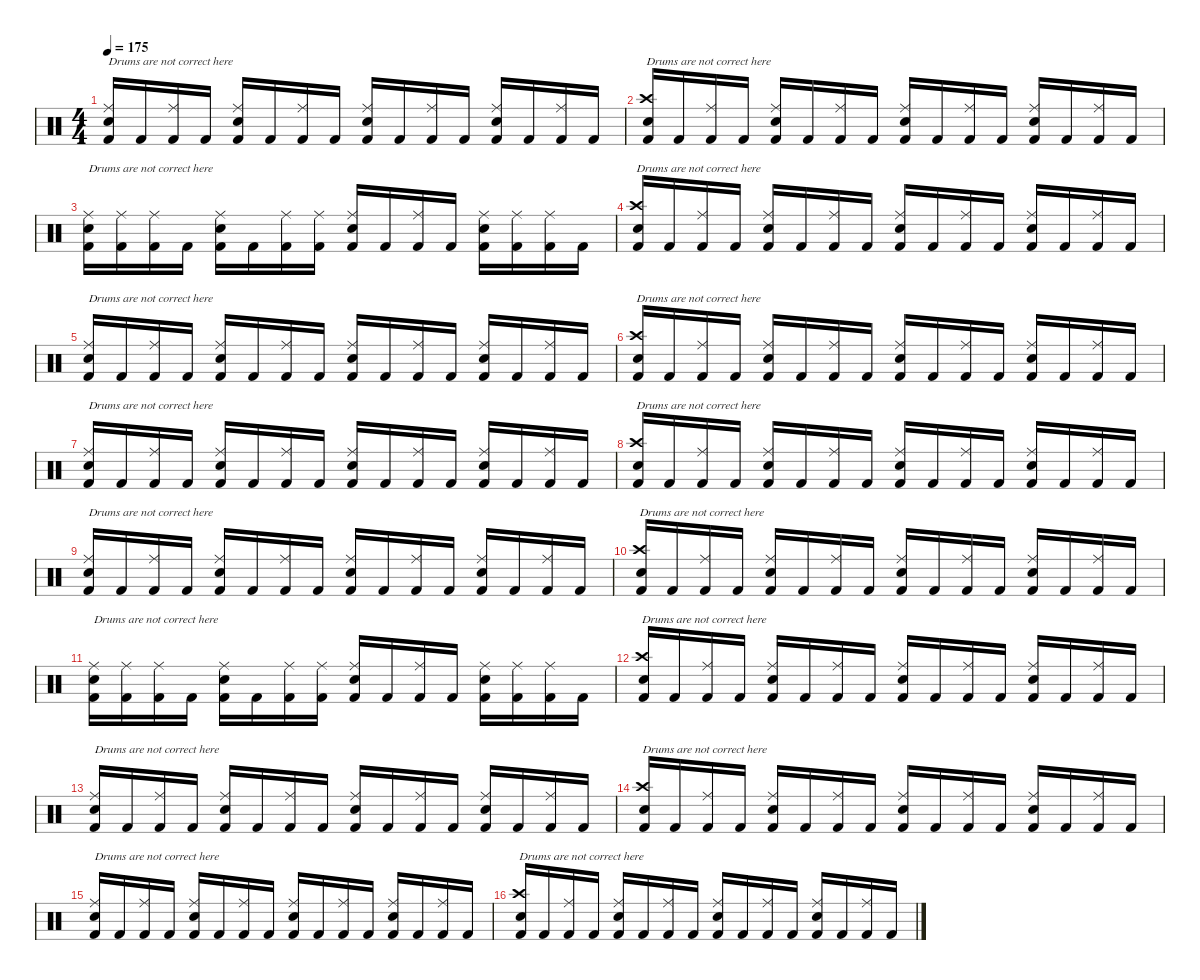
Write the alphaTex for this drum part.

\defaultSystemsLayout 4
\hideDynamics
\bracketExtendMode nobrackets
\singleTrackTrackNamePolicy hidden
\multiTrackTrackNamePolicy hidden
\firstSystemTrackNameMode fullname
\firstSystemTrackNameOrientation horizontal
\otherSystemsTrackNameOrientation horizontal
\track ("Fredrik Andersson" "drm.") {instrument percussion}
\staff {score}
\articulation defaults
\ts (4 4)
\tempo 175
\clef neutral
\ks c
("Ride (middle)" "Snare (hit) 2" "Kick (hit) 2").16{txt "Drums are not correct here" dy f beam Up} "Kick (hit) 2".16{beam Up} ("Ride (middle)" "Kick (hit) 2").16{beam Up} "Kick (hit) 2".16{beam Up} ("Ride (middle)" "Snare (hit) 2" "Kick (hit) 2").16{beam Up} "Kick (hit) 2".16{beam Up} ("Ride (middle)" "Kick (hit) 2").16{beam Up} "Kick (hit) 2".16{beam Up} ("Ride (middle)" "Snare (hit) 2" "Kick (hit) 2").16{beam Up} "Kick (hit) 2".16{beam Up} ("Ride (middle)" "Kick (hit) 2").16{beam Up} "Kick (hit) 2".16{beam Up} ("Ride (middle)" "Snare (hit) 2" "Kick (hit) 2").16{beam Up} "Kick (hit) 2".16{beam Up} ("Ride (middle)" "Kick (hit) 2").16{beam Up} "Kick (hit) 2".16{beam Up} |
("Crash high (hit)" "Snare (hit) 2" "Kick (hit) 2").16{txt "Drums are not correct here" beam Up} "Kick (hit) 2".16{beam Up} ("Ride (middle)" "Kick (hit) 2").16{beam Up} "Kick (hit) 2".16{beam Up} ("Ride (middle)" "Snare (hit) 2" "Kick (hit) 2").16{beam Up} "Kick (hit) 2".16{beam Up} ("Ride (middle)" "Kick (hit) 2").16{beam Up} "Kick (hit) 2".16{beam Up} ("Ride (middle)" "Snare (hit) 2" "Kick (hit) 2").16{beam Up} "Kick (hit) 2".16{beam Up} ("Ride (middle)" "Kick (hit) 2").16{beam Up} "Kick (hit) 2".16{beam Up} ("Ride (middle)" "Snare (hit) 2" "Kick (hit) 2").16{beam Up} "Kick (hit) 2".16{beam Up} ("Ride (middle)" "Kick (hit) 2").16{beam Up} "Kick (hit) 2".16{beam Up} |
("Ride (middle)" "Snare (hit) 2" "Kick (hit) 2").16{txt "Drums are not correct here" beam Down} ("Ride (middle)" "Kick (hit) 2").16{beam Down} ("Ride (middle)" "Kick (hit) 2").16{beam Down} "Kick (hit) 2".16{beam Down} ("Ride (middle)" "Snare (hit) 2" "Kick (hit) 2").16{beam Down} "Kick (hit) 2".16{beam Down} ("Ride (middle)" "Kick (hit) 2").16{beam Down} ("Ride (middle)" "Kick (hit) 2").16{beam Down} ("Ride (middle)" "Snare (hit) 2" "Kick (hit) 2").16{beam Up} "Kick (hit) 2".16{beam Up} ("Ride (middle)" "Kick (hit) 2").16{beam Up} "Kick (hit) 2".16{beam Up} ("Ride (middle)" "Snare (hit) 2" "Kick (hit) 2").16{beam Down} ("Ride (middle)" "Kick (hit) 2").16{beam Down} ("Ride (middle)" "Kick (hit) 2").16{beam Down} "Kick (hit) 2".16{beam Down} |
("Crash high (hit)" "Snare (hit) 2" "Kick (hit) 2").16{txt "Drums are not correct here" beam Up} "Kick (hit) 2".16{beam Up} ("Ride (middle)" "Kick (hit) 2").16{beam Up} "Kick (hit) 2".16{beam Up} ("Ride (middle)" "Snare (hit) 2" "Kick (hit) 2").16{beam Up} "Kick (hit) 2".16{beam Up} ("Ride (middle)" "Kick (hit) 2").16{beam Up} "Kick (hit) 2".16{beam Up} ("Ride (middle)" "Snare (hit) 2" "Kick (hit) 2").16{beam Up} "Kick (hit) 2".16{beam Up} ("Ride (middle)" "Kick (hit) 2").16{beam Up} "Kick (hit) 2".16{beam Up} ("Ride (middle)" "Snare (hit) 2" "Kick (hit) 2").16{beam Up} "Kick (hit) 2".16{beam Up} ("Ride (middle)" "Kick (hit) 2").16{beam Up} "Kick (hit) 2".16{beam Up} |
("Ride (middle)" "Snare (hit) 2" "Kick (hit) 2").16{txt "Drums are not correct here" beam Up} "Kick (hit) 2".16{beam Up} ("Ride (middle)" "Kick (hit) 2").16{beam Up} "Kick (hit) 2".16{beam Up} ("Ride (middle)" "Snare (hit) 2" "Kick (hit) 2").16{beam Up} "Kick (hit) 2".16{beam Up} ("Ride (middle)" "Kick (hit) 2").16{beam Up} "Kick (hit) 2".16{beam Up} ("Ride (middle)" "Snare (hit) 2" "Kick (hit) 2").16{beam Up} "Kick (hit) 2".16{beam Up} ("Ride (middle)" "Kick (hit) 2").16{beam Up} "Kick (hit) 2".16{beam Up} ("Ride (middle)" "Snare (hit) 2" "Kick (hit) 2").16{beam Up} "Kick (hit) 2".16{beam Up} ("Ride (middle)" "Kick (hit) 2").16{beam Up} "Kick (hit) 2".16{beam Up} |
("Crash high (hit)" "Snare (hit) 2" "Kick (hit) 2").16{txt "Drums are not correct here" beam Up} "Kick (hit) 2".16{beam Up} ("Ride (middle)" "Kick (hit) 2").16{beam Up} "Kick (hit) 2".16{beam Up} ("Ride (middle)" "Snare (hit) 2" "Kick (hit) 2").16{beam Up} "Kick (hit) 2".16{beam Up} ("Ride (middle)" "Kick (hit) 2").16{beam Up} "Kick (hit) 2".16{beam Up} ("Ride (middle)" "Snare (hit) 2" "Kick (hit) 2").16{beam Up} "Kick (hit) 2".16{beam Up} ("Ride (middle)" "Kick (hit) 2").16{beam Up} "Kick (hit) 2".16{beam Up} ("Ride (middle)" "Snare (hit) 2" "Kick (hit) 2").16{beam Up} "Kick (hit) 2".16{beam Up} ("Ride (middle)" "Kick (hit) 2").16{beam Up} "Kick (hit) 2".16{beam Up} |
("Ride (middle)" "Snare (hit) 2" "Kick (hit) 2").16{txt "Drums are not correct here" beam Up} "Kick (hit) 2".16{beam Up} ("Ride (middle)" "Kick (hit) 2").16{beam Up} "Kick (hit) 2".16{beam Up} ("Ride (middle)" "Snare (hit) 2" "Kick (hit) 2").16{beam Up} "Kick (hit) 2".16{beam Up} ("Ride (middle)" "Kick (hit) 2").16{beam Up} "Kick (hit) 2".16{beam Up} ("Ride (middle)" "Snare (hit) 2" "Kick (hit) 2").16{beam Up} "Kick (hit) 2".16{beam Up} ("Ride (middle)" "Kick (hit) 2").16{beam Up} "Kick (hit) 2".16{beam Up} ("Ride (middle)" "Snare (hit) 2" "Kick (hit) 2").16{beam Up} "Kick (hit) 2".16{beam Up} ("Ride (middle)" "Kick (hit) 2").16{beam Up} "Kick (hit) 2".16{beam Up} |
("Crash high (hit)" "Snare (hit) 2" "Kick (hit) 2").16{txt "Drums are not correct here" beam Up} "Kick (hit) 2".16{beam Up} ("Ride (middle)" "Kick (hit) 2").16{beam Up} "Kick (hit) 2".16{beam Up} ("Ride (middle)" "Snare (hit) 2" "Kick (hit) 2").16{beam Up} "Kick (hit) 2".16{beam Up} ("Ride (middle)" "Kick (hit) 2").16{beam Up} "Kick (hit) 2".16{beam Up} ("Ride (middle)" "Snare (hit) 2" "Kick (hit) 2").16{beam Up} "Kick (hit) 2".16{beam Up} ("Ride (middle)" "Kick (hit) 2").16{beam Up} "Kick (hit) 2".16{beam Up} ("Ride (middle)" "Snare (hit) 2" "Kick (hit) 2").16{beam Up} "Kick (hit) 2".16{beam Up} ("Ride (middle)" "Kick (hit) 2").16{beam Up} "Kick (hit) 2".16{beam Up} |
("Ride (middle)" "Snare (hit) 2" "Kick (hit) 2").16{txt "Drums are not correct here" beam Up} "Kick (hit) 2".16{beam Up} ("Ride (middle)" "Kick (hit) 2").16{beam Up} "Kick (hit) 2".16{beam Up} ("Ride (middle)" "Snare (hit) 2" "Kick (hit) 2").16{beam Up} "Kick (hit) 2".16{beam Up} ("Ride (middle)" "Kick (hit) 2").16{beam Up} "Kick (hit) 2".16{beam Up} ("Ride (middle)" "Snare (hit) 2" "Kick (hit) 2").16{beam Up} "Kick (hit) 2".16{beam Up} ("Ride (middle)" "Kick (hit) 2").16{beam Up} "Kick (hit) 2".16{beam Up} ("Ride (middle)" "Snare (hit) 2" "Kick (hit) 2").16{beam Up} "Kick (hit) 2".16{beam Up} ("Ride (middle)" "Kick (hit) 2").16{beam Up} "Kick (hit) 2".16{beam Up} |
("Crash high (hit)" "Snare (hit) 2" "Kick (hit) 2").16{txt "Drums are not correct here" beam Up} "Kick (hit) 2".16{beam Up} ("Ride (middle)" "Kick (hit) 2").16{beam Up} "Kick (hit) 2".16{beam Up} ("Ride (middle)" "Snare (hit) 2" "Kick (hit) 2").16{beam Up} "Kick (hit) 2".16{beam Up} ("Ride (middle)" "Kick (hit) 2").16{beam Up} "Kick (hit) 2".16{beam Up} ("Ride (middle)" "Snare (hit) 2" "Kick (hit) 2").16{beam Up} "Kick (hit) 2".16{beam Up} ("Ride (middle)" "Kick (hit) 2").16{beam Up} "Kick (hit) 2".16{beam Up} ("Ride (middle)" "Snare (hit) 2" "Kick (hit) 2").16{beam Up} "Kick (hit) 2".16{beam Up} ("Ride (middle)" "Kick (hit) 2").16{beam Up} "Kick (hit) 2".16{beam Up} |
("Ride (middle)" "Snare (hit) 2" "Kick (hit) 2").16{txt "Drums are not correct here" beam Down} ("Ride (middle)" "Kick (hit) 2").16{beam Down} ("Ride (middle)" "Kick (hit) 2").16{beam Down} "Kick (hit) 2".16{beam Down} ("Ride (middle)" "Snare (hit) 2" "Kick (hit) 2").16{beam Down} "Kick (hit) 2".16{beam Down} ("Ride (middle)" "Kick (hit) 2").16{beam Down} ("Ride (middle)" "Kick (hit) 2").16{beam Down} ("Ride (middle)" "Snare (hit) 2" "Kick (hit) 2").16{beam Up} "Kick (hit) 2".16{beam Up} ("Ride (middle)" "Kick (hit) 2").16{beam Up} "Kick (hit) 2".16{beam Up} ("Ride (middle)" "Snare (hit) 2" "Kick (hit) 2").16{beam Down} ("Ride (middle)" "Kick (hit) 2").16{beam Down} ("Ride (middle)" "Kick (hit) 2").16{beam Down} "Kick (hit) 2".16{beam Down} |
("Crash high (hit)" "Snare (hit) 2" "Kick (hit) 2").16{txt "Drums are not correct here" beam Up} "Kick (hit) 2".16{beam Up} ("Ride (middle)" "Kick (hit) 2").16{beam Up} "Kick (hit) 2".16{beam Up} ("Ride (middle)" "Snare (hit) 2" "Kick (hit) 2").16{beam Up} "Kick (hit) 2".16{beam Up} ("Ride (middle)" "Kick (hit) 2").16{beam Up} "Kick (hit) 2".16{beam Up} ("Ride (middle)" "Snare (hit) 2" "Kick (hit) 2").16{beam Up} "Kick (hit) 2".16{beam Up} ("Ride (middle)" "Kick (hit) 2").16{beam Up} "Kick (hit) 2".16{beam Up} ("Ride (middle)" "Snare (hit) 2" "Kick (hit) 2").16{beam Up} "Kick (hit) 2".16{beam Up} ("Ride (middle)" "Kick (hit) 2").16{beam Up} "Kick (hit) 2".16{beam Up} |
("Ride (middle)" "Snare (hit) 2" "Kick (hit) 2").16{txt "Drums are not correct here" beam Up} "Kick (hit) 2".16{beam Up} ("Ride (middle)" "Kick (hit) 2").16{beam Up} "Kick (hit) 2".16{beam Up} ("Ride (middle)" "Snare (hit) 2" "Kick (hit) 2").16{beam Up} "Kick (hit) 2".16{beam Up} ("Ride (middle)" "Kick (hit) 2").16{beam Up} "Kick (hit) 2".16{beam Up} ("Ride (middle)" "Snare (hit) 2" "Kick (hit) 2").16{beam Up} "Kick (hit) 2".16{beam Up} ("Ride (middle)" "Kick (hit) 2").16{beam Up} "Kick (hit) 2".16{beam Up} ("Ride (middle)" "Snare (hit) 2" "Kick (hit) 2").16{beam Up} "Kick (hit) 2".16{beam Up} ("Ride (middle)" "Kick (hit) 2").16{beam Up} "Kick (hit) 2".16{beam Up} |
("Crash high (hit)" "Snare (hit) 2" "Kick (hit) 2").16{txt "Drums are not correct here" beam Up} "Kick (hit) 2".16{beam Up} ("Ride (middle)" "Kick (hit) 2").16{beam Up} "Kick (hit) 2".16{beam Up} ("Ride (middle)" "Snare (hit) 2" "Kick (hit) 2").16{beam Up} "Kick (hit) 2".16{beam Up} ("Ride (middle)" "Kick (hit) 2").16{beam Up} "Kick (hit) 2".16{beam Up} ("Ride (middle)" "Snare (hit) 2" "Kick (hit) 2").16{beam Up} "Kick (hit) 2".16{beam Up} ("Ride (middle)" "Kick (hit) 2").16{beam Up} "Kick (hit) 2".16{beam Up} ("Ride (middle)" "Snare (hit) 2" "Kick (hit) 2").16{beam Up} "Kick (hit) 2".16{beam Up} ("Ride (middle)" "Kick (hit) 2").16{beam Up} "Kick (hit) 2".16{beam Up} |
("Ride (middle)" "Snare (hit) 2" "Kick (hit) 2").16{txt "Drums are not correct here" beam Up} "Kick (hit) 2".16{beam Up} ("Ride (middle)" "Kick (hit) 2").16{beam Up} "Kick (hit) 2".16{beam Up} ("Ride (middle)" "Snare (hit) 2" "Kick (hit) 2").16{beam Up} "Kick (hit) 2".16{beam Up} ("Ride (middle)" "Kick (hit) 2").16{beam Up} "Kick (hit) 2".16{beam Up} ("Ride (middle)" "Snare (hit) 2" "Kick (hit) 2").16{beam Up} "Kick (hit) 2".16{beam Up} ("Ride (middle)" "Kick (hit) 2").16{beam Up} "Kick (hit) 2".16{beam Up} ("Ride (middle)" "Snare (hit) 2" "Kick (hit) 2").16{beam Up} "Kick (hit) 2".16{beam Up} ("Ride (middle)" "Kick (hit) 2").16{beam Up} "Kick (hit) 2".16{beam Up} |
("Crash high (hit)" "Snare (hit) 2" "Kick (hit) 2").16{txt "Drums are not correct here" beam Up} "Kick (hit) 2".16{beam Up} ("Ride (middle)" "Kick (hit) 2").16{beam Up} "Kick (hit) 2".16{beam Up} ("Ride (middle)" "Snare (hit) 2" "Kick (hit) 2").16{beam Up} "Kick (hit) 2".16{beam Up} ("Ride (middle)" "Kick (hit) 2").16{beam Up} "Kick (hit) 2".16{beam Up} ("Ride (middle)" "Snare (hit) 2" "Kick (hit) 2").16{beam Up} "Kick (hit) 2".16{beam Up} ("Ride (middle)" "Kick (hit) 2").16{beam Up} "Kick (hit) 2".16{beam Up} ("Ride (middle)" "Snare (hit) 2" "Kick (hit) 2").16{beam Up} "Kick (hit) 2".16{beam Up} ("Ride (middle)" "Kick (hit) 2").16{beam Up} "Kick (hit) 2".16{beam Up}
